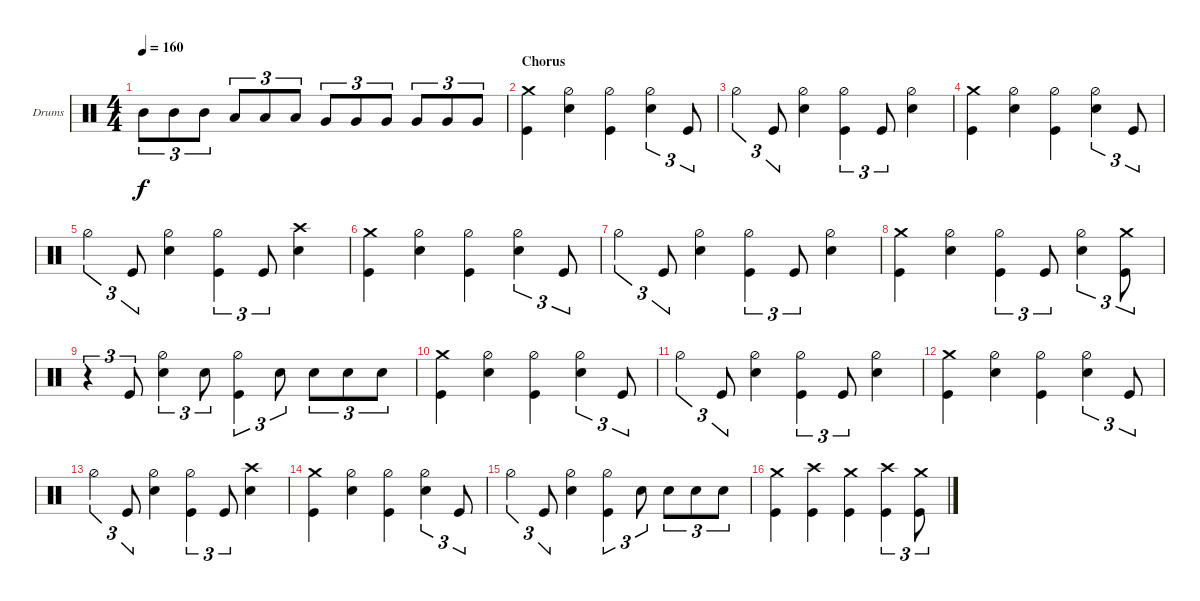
\bracketExtendMode groupsimilarinstruments
\firstSystemTrackNameOrientation horizontal
\otherSystemsTrackNameOrientation horizontal
\track ("Drumkit" "Drums") {instrument percussion}
\staff {score}
\articulation defaults
\ts (4 4)
\tempo 160
\clef neutral
\ks c "Mid Tom (hit)".8{tu (3 2) dy f} "Mid Tom (hit)".8{tu (3 2)} "Mid Tom (hit)".8{tu (3 2)} "Low Tom (hit)".8{tu (3 2)} "Low Tom (hit)".8{tu (3 2)} "Low Tom (hit)".8{tu (3 2)} "Very Low Tom (hit)".8{tu (3 2)} "Very Low Tom (hit)".8{tu (3 2)} "Very Low Tom (hit)".8{tu (3 2)} "Very Low Tom (hit)".8{tu (3 2)} "Very Low Tom (hit)".8{tu (3 2)} "Very Low Tom (hit)".8{tu (3 2)}
|
\section ("" "Chorus")
("Kick (hit)" "Crash medium (hit)").4 ("Snare (hit) 2" "Hi-Hat (half)").4 ("Kick (hit)" "Hi-Hat (half)").4 ("Snare (hit) 2" "Hi-Hat (half)").4{tu (3 2)} "Kick (hit)".8{tu (3 2)} |
"Hi-Hat (half)".4{tu (3 2)} "Kick (hit)".8{tu (3 2)} ("Snare (hit) 2" "Hi-Hat (half)").4 ("Kick (hit)" "Hi-Hat (half)").4{tu (3 2)} "Kick (hit)".8{tu (3 2)} ("Snare (hit) 2" "Hi-Hat (half)").4 |
("Kick (hit)" "Crash medium (hit)").4 ("Snare (hit) 2" "Hi-Hat (half)").4 ("Kick (hit)" "Hi-Hat (half)").4 ("Snare (hit) 2" "Hi-Hat (half)").4{tu (3 2)} "Kick (hit)".8{tu (3 2)} |
"Hi-Hat (half)".4{tu (3 2)} "Kick (hit)".8{tu (3 2)} ("Snare (hit) 2" "Hi-Hat (half)").4 ("Kick (hit)" "Hi-Hat (half)").4{tu (3 2)} "Kick (hit)".8{tu (3 2)} ("Snare (hit) 2" "Crash high (hit)").4 |
("Kick (hit)" "Crash medium (hit)").4 ("Snare (hit) 2" "Hi-Hat (half)").4 ("Kick (hit)" "Hi-Hat (half)").4 ("Snare (hit) 2" "Hi-Hat (half)").4{tu (3 2)} "Kick (hit)".8{tu (3 2)} |
"Hi-Hat (half)".4{tu (3 2)} "Kick (hit)".8{tu (3 2)} ("Snare (hit) 2" "Hi-Hat (half)").4 ("Kick (hit)" "Hi-Hat (half)").4{tu (3 2)} "Kick (hit)".8{tu (3 2)} ("Snare (hit) 2" "Hi-Hat (half)").4 |
("Kick (hit)" "Crash medium (hit)").4 ("Snare (hit) 2" "Hi-Hat (half)").4 ("Kick (hit)" "Hi-Hat (half)").4{tu (3 2)} "Kick (hit)".8{tu (3 2)} ("Snare (hit) 2" "Hi-Hat (half)").4{tu (3 2)} ("Kick (hit)" "Crash medium (hit)").8{tu (3 2)} |
r.4{tu (3 2)} "Kick (hit)".8{tu (3 2)} ("Snare (hit) 2" "Hi-Hat (half)").4{tu (3 2)} "Snare (hit) 2".8{tu (3 2)} ("Kick (hit)" "Hi-Hat (half)").4{tu (3 2)} "Snare (hit) 2".8{tu (3 2)} "Snare (hit) 2".8{tu (3 2)} "Snare (hit) 2".8{tu (3 2)} "Snare (hit) 2".8{tu (3 2)} |
("Kick (hit)" "Crash medium (hit)").4 ("Snare (hit) 2" "Hi-Hat (half)").4 ("Kick (hit)" "Hi-Hat (half)").4 ("Snare (hit) 2" "Hi-Hat (half)").4{tu (3 2)} "Kick (hit)".8{tu (3 2)} |
"Hi-Hat (half)".4{tu (3 2)} "Kick (hit)".8{tu (3 2)} ("Snare (hit) 2" "Hi-Hat (half)").4 ("Kick (hit)" "Hi-Hat (half)").4{tu (3 2)} "Kick (hit)".8{tu (3 2)} ("Snare (hit) 2" "Hi-Hat (half)").4 |
("Kick (hit)" "Crash medium (hit)").4 ("Snare (hit) 2" "Hi-Hat (half)").4 ("Kick (hit)" "Hi-Hat (half)").4 ("Snare (hit) 2" "Hi-Hat (half)").4{tu (3 2)} "Kick (hit)".8{tu (3 2)} |
"Hi-Hat (half)".4{tu (3 2)} "Kick (hit)".8{tu (3 2)} ("Snare (hit) 2" "Hi-Hat (half)").4 ("Kick (hit)" "Hi-Hat (half)").4{tu (3 2)} "Kick (hit)".8{tu (3 2)} ("Snare (hit) 2" "Crash high (hit)").4 |
("Kick (hit)" "Crash medium (hit)").4 ("Snare (hit) 2" "Hi-Hat (half)").4 ("Kick (hit)" "Hi-Hat (half)").4 ("Snare (hit) 2" "Hi-Hat (half)").4{tu (3 2)} "Kick (hit)".8{tu (3 2)} |
"Hi-Hat (half)".4{tu (3 2)} "Kick (hit)".8{tu (3 2)} ("Snare (hit) 2" "Hi-Hat (half)").4 ("Kick (hit)" "Hi-Hat (half)").4{tu (3 2)} "Snare (hit) 2".8{tu (3 2)} "Snare (hit) 2".8{tu (3 2)} "Snare (hit) 2".8{tu (3 2)} "Snare (hit) 2".8{tu (3 2)} |
("Kick (hit)" "Crash medium (hit)").4 ("Kick (hit)" "Crash high (hit)").4 ("Kick (hit)" "Crash medium (hit)").4 ("Kick (hit)" "Crash high (hit)").4{tu (3 2)} ("Kick (hit)" "Crash medium (hit)").8{tu (3 2)}
